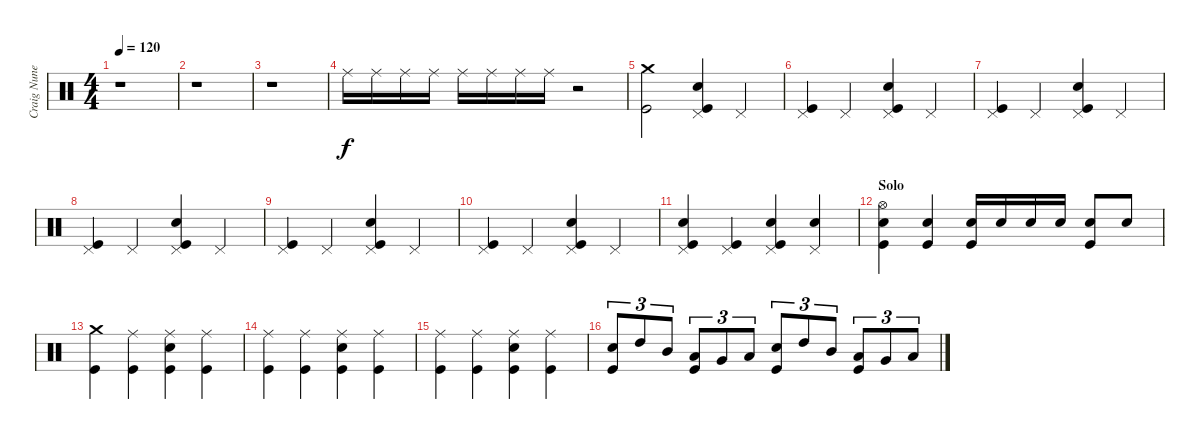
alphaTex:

\track ("Craig Nunenmacher" "Craig Nune") {instrument percussion}
\staff {score}
\articulation defaults
\ts (4 4)
\tempo 120
\clef neutral
\ks c
r.1{dy f} |
r.1 |
r.1 |
"Ride (middle)".16 "Ride (middle)".16 "Ride (middle)".16 "Ride (middle)".16 "Ride (middle)".16 "Ride (middle)".16 "Ride (middle)".16 "Ride (middle)".16 r.2 |
("Crash medium (hit)" "Kick (hit)").2 ("Pedal Hi-Hat (hit)" "Snare (hit) 2" "Kick (hit)").4 "Pedal Hi-Hat (hit)".4 |
("Pedal Hi-Hat (hit)" "Kick (hit)").4 "Pedal Hi-Hat (hit)".4 ("Pedal Hi-Hat (hit)" "Snare (hit) 2" "Kick (hit)").4 "Pedal Hi-Hat (hit)".4 |
("Pedal Hi-Hat (hit)" "Kick (hit)").4 "Pedal Hi-Hat (hit)".4 ("Pedal Hi-Hat (hit)" "Snare (hit) 2" "Kick (hit)").4 "Pedal Hi-Hat (hit)".4 |
("Pedal Hi-Hat (hit)" "Kick (hit)").4 "Pedal Hi-Hat (hit)".4 ("Pedal Hi-Hat (hit)" "Snare (hit) 2" "Kick (hit)").4 "Pedal Hi-Hat (hit)".4 |
("Pedal Hi-Hat (hit)" "Kick (hit)").4 "Pedal Hi-Hat (hit)".4 ("Pedal Hi-Hat (hit)" "Snare (hit) 2" "Kick (hit)").4 "Pedal Hi-Hat (hit)".4 |
("Pedal Hi-Hat (hit)" "Kick (hit)").4 "Pedal Hi-Hat (hit)".4 ("Pedal Hi-Hat (hit)" "Snare (hit) 2" "Kick (hit)").4 "Pedal Hi-Hat (hit)".4 |
("Pedal Hi-Hat (hit)" "Snare (hit) 2" "Kick (hit)").4 ("Pedal Hi-Hat (hit)" "Kick (hit)").4 ("Pedal Hi-Hat (hit)" "Snare (hit) 2" "Kick (hit)").4 ("Pedal Hi-Hat (hit)" "Snare (hit) 2").4 |
\section ("" "Solo")
("Hi-Hat (open)" "Snare (hit) 2" "Kick (hit)").4 ("Snare (hit) 2" "Kick (hit)").4 ("Snare (hit) 2" "Kick (hit)").16 "Snare (hit) 2".16 "Snare (hit) 2".16 "Snare (hit) 2".16 ("Snare (hit) 2" "Kick (hit)").8 "Snare (hit) 2".8 |
("Crash medium (hit)" "Kick (hit)").4 ("Ride (middle)" "Kick (hit)").4 ("Ride (middle)" "Snare (hit) 2" "Kick (hit)").4 ("Ride (middle)" "Kick (hit)").4 |
("Ride (middle)" "Kick (hit)").4 ("Ride (middle)" "Kick (hit)").4 ("Ride (middle)" "Snare (hit) 2" "Kick (hit)").4 ("Ride (middle)" "Kick (hit)").4 |
("Ride (middle)" "Kick (hit)").4 ("Ride (middle)" "Kick (hit)").4 ("Ride (middle)" "Snare (hit) 2" "Kick (hit)").4 ("Ride (middle)" "Kick (hit)").4 |
("Snare (hit) 2" "Kick (hit)").8{tu (3 2)} "High Tom (hit)".8{tu (3 2)} "Mid Tom (hit)".8{tu (3 2)} ("Low Tom (hit)" "Kick (hit)").8{tu (3 2)} "Very Low Tom (hit)".8{tu (3 2)} "Low Floor Tom (hit)".8{tu (3 2)} ("Snare (hit) 2" "Kick (hit)").8{tu (3 2)} "High Tom (hit)".8{tu (3 2)} "Mid Tom (hit)".8{tu (3 2)} ("Low Tom (hit)" "Kick (hit)").8{tu (3 2)} "Very Low Tom (hit)".8{tu (3 2)} "Low Floor Tom (hit)".8{tu (3 2)}
